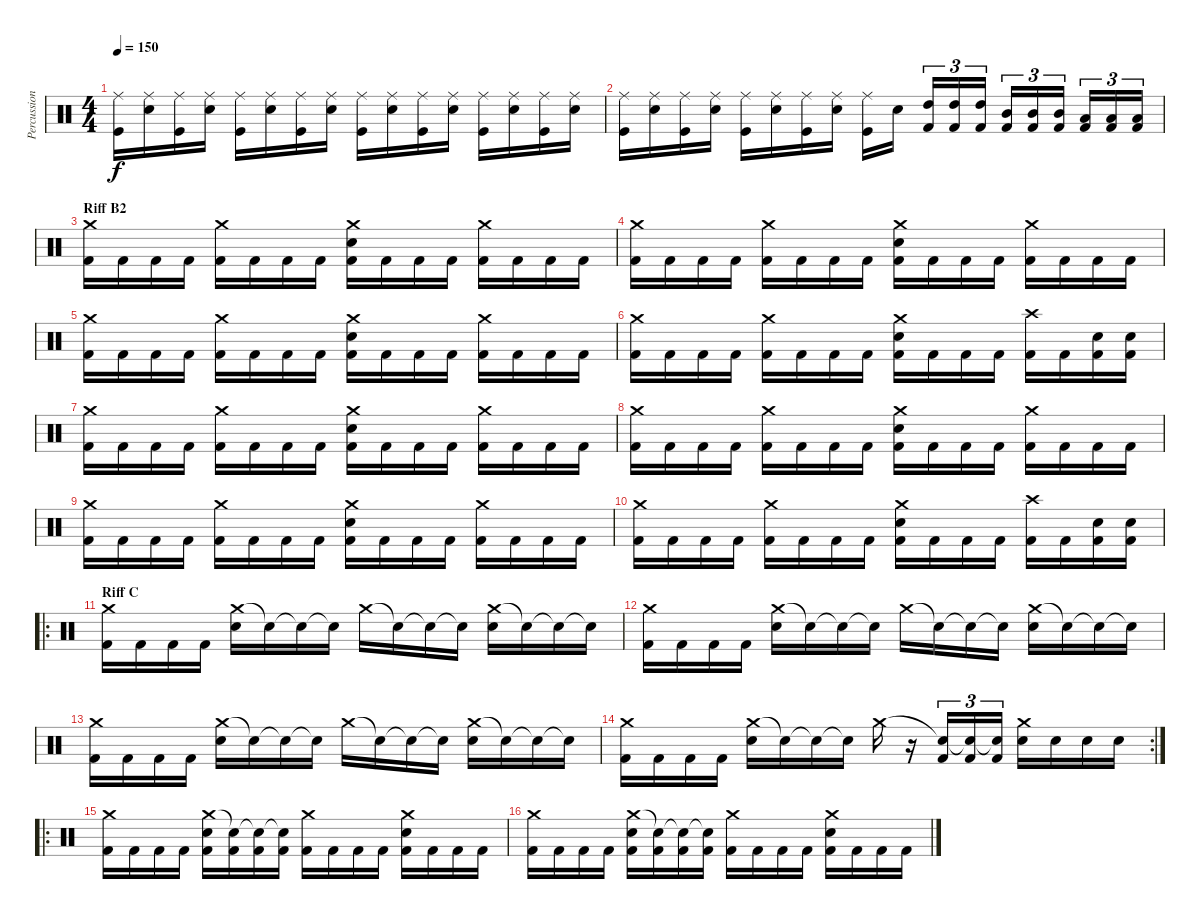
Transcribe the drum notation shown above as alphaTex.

\track ("Percussions" "Percussion") {instrument percussion}
\staff {score}
\articulation defaults
\ts (4 4)
\tempo 150
\clef neutral
\ks c
("Ride (middle)" "Kick (hit)").16{dy f} ("Ride (middle)" "Snare (hit) 2").16 ("Ride (middle)" "Kick (hit)").16 ("Ride (middle)" "Snare (hit) 2").16 ("Ride (middle)" "Kick (hit)").16 ("Ride (middle)" "Snare (hit) 2").16 ("Ride (middle)" "Kick (hit)").16 ("Ride (middle)" "Snare (hit) 2").16 ("Ride (middle)" "Kick (hit)").16 ("Ride (middle)" "Snare (hit) 2").16 ("Ride (middle)" "Kick (hit)").16 ("Ride (middle)" "Snare (hit) 2").16 ("Ride (middle)" "Kick (hit)").16 ("Ride (middle)" "Snare (hit) 2").16 ("Ride (middle)" "Kick (hit)").16 ("Ride (middle)" "Snare (hit) 2").16 |
("Ride (middle)" "Kick (hit)").16 ("Ride (middle)" "Snare (hit) 2").16 ("Ride (middle)" "Kick (hit)").16 ("Ride (middle)" "Snare (hit) 2").16 ("Ride (middle)" "Kick (hit)").16 ("Ride (middle)" "Snare (hit) 2").16 ("Ride (middle)" "Kick (hit)").16 ("Ride (middle)" "Snare (hit) 2").16 ("Ride (middle)" "Kick (hit)").16 "Snare (hit) 2".16 ("High Tom (hit)" "Kick (hit) 2").16{tu (3 2)} ("High Tom (hit)" "Kick (hit) 2").16{tu (3 2)} ("High Tom (hit)" "Kick (hit) 2").16{tu (3 2)} ("Mid Tom (hit)" "Kick (hit) 2").16{tu (3 2)} ("Mid Tom (hit)" "Kick (hit) 2").16{tu (3 2)} ("Mid Tom (hit)" "Kick (hit) 2").16{tu (3 2)} ("Low Tom (hit)" "Kick (hit) 2").16{tu (3 2)} ("Low Tom (hit)" "Kick (hit) 2").16{tu (3 2)} ("Low Tom (hit)" "Kick (hit) 2").16{tu (3 2)} |
\section ("" "Riff B2")
("Crash medium (hit)" "Kick (hit) 2").16 "Kick (hit) 2".16 "Kick (hit) 2".16 "Kick (hit) 2".16 ("Crash medium (hit)" "Kick (hit) 2").16 "Kick (hit) 2".16 "Kick (hit) 2".16 "Kick (hit) 2".16 ("Crash medium (hit)" "Snare (hit) 2" "Kick (hit) 2").16 "Kick (hit) 2".16 "Kick (hit) 2".16 "Kick (hit) 2".16 ("Crash medium (hit)" "Kick (hit) 2").16 "Kick (hit) 2".16 "Kick (hit) 2".16 "Kick (hit) 2".16 |
("Crash medium (hit)" "Kick (hit) 2").16 "Kick (hit) 2".16 "Kick (hit) 2".16 "Kick (hit) 2".16 ("Crash medium (hit)" "Kick (hit) 2").16 "Kick (hit) 2".16 "Kick (hit) 2".16 "Kick (hit) 2".16 ("Crash medium (hit)" "Snare (hit) 2" "Kick (hit) 2").16 "Kick (hit) 2".16 "Kick (hit) 2".16 "Kick (hit) 2".16 ("Crash medium (hit)" "Kick (hit) 2").16 "Kick (hit) 2".16 "Kick (hit) 2".16 "Kick (hit) 2".16 |
("Crash medium (hit)" "Kick (hit) 2").16 "Kick (hit) 2".16 "Kick (hit) 2".16 "Kick (hit) 2".16 ("Crash medium (hit)" "Kick (hit) 2").16 "Kick (hit) 2".16 "Kick (hit) 2".16 "Kick (hit) 2".16 ("Crash medium (hit)" "Snare (hit) 2" "Kick (hit) 2").16 "Kick (hit) 2".16 "Kick (hit) 2".16 "Kick (hit) 2".16 ("Crash medium (hit)" "Kick (hit) 2").16 "Kick (hit) 2".16 "Kick (hit) 2".16 "Kick (hit) 2".16 |
("Crash medium (hit)" "Kick (hit) 2").16 "Kick (hit) 2".16 "Kick (hit) 2".16 "Kick (hit) 2".16 ("Crash medium (hit)" "Kick (hit) 2").16 "Kick (hit) 2".16 "Kick (hit) 2".16 "Kick (hit) 2".16 ("Crash medium (hit)" "Snare (hit) 2" "Kick (hit) 2").16 "Kick (hit) 2".16 "Kick (hit) 2".16 "Kick (hit) 2".16 ("Crash high (hit)" "Kick (hit) 2").16 "Kick (hit) 2".16 ("Snare (hit) 2" "Kick (hit) 2").16 ("Snare (hit) 2" "Kick (hit) 2").16 |
("Crash medium (hit)" "Kick (hit) 2").16 "Kick (hit) 2".16 "Kick (hit) 2".16 "Kick (hit) 2".16 ("Crash medium (hit)" "Kick (hit) 2").16 "Kick (hit) 2".16 "Kick (hit) 2".16 "Kick (hit) 2".16 ("Crash medium (hit)" "Snare (hit) 2" "Kick (hit) 2").16 "Kick (hit) 2".16 "Kick (hit) 2".16 "Kick (hit) 2".16 ("Crash medium (hit)" "Kick (hit) 2").16 "Kick (hit) 2".16 "Kick (hit) 2".16 "Kick (hit) 2".16 |
("Crash medium (hit)" "Kick (hit) 2").16 "Kick (hit) 2".16 "Kick (hit) 2".16 "Kick (hit) 2".16 ("Crash medium (hit)" "Kick (hit) 2").16 "Kick (hit) 2".16 "Kick (hit) 2".16 "Kick (hit) 2".16 ("Crash medium (hit)" "Snare (hit) 2" "Kick (hit) 2").16 "Kick (hit) 2".16 "Kick (hit) 2".16 "Kick (hit) 2".16 ("Crash medium (hit)" "Kick (hit) 2").16 "Kick (hit) 2".16 "Kick (hit) 2".16 "Kick (hit) 2".16 |
("Crash medium (hit)" "Kick (hit) 2").16 "Kick (hit) 2".16 "Kick (hit) 2".16 "Kick (hit) 2".16 ("Crash medium (hit)" "Kick (hit) 2").16 "Kick (hit) 2".16 "Kick (hit) 2".16 "Kick (hit) 2".16 ("Crash medium (hit)" "Snare (hit) 2" "Kick (hit) 2").16 "Kick (hit) 2".16 "Kick (hit) 2".16 "Kick (hit) 2".16 ("Crash medium (hit)" "Kick (hit) 2").16 "Kick (hit) 2".16 "Kick (hit) 2".16 "Kick (hit) 2".16 |
("Crash medium (hit)" "Kick (hit) 2").16 "Kick (hit) 2".16 "Kick (hit) 2".16 "Kick (hit) 2".16 ("Crash medium (hit)" "Kick (hit) 2").16 "Kick (hit) 2".16 "Kick (hit) 2".16 "Kick (hit) 2".16 ("Crash medium (hit)" "Snare (hit) 2" "Kick (hit) 2").16 "Kick (hit) 2".16 "Kick (hit) 2".16 "Kick (hit) 2".16 ("Crash high (hit)" "Kick (hit) 2").16 "Kick (hit) 2".16 ("Snare (hit) 2" "Kick (hit) 2").16 ("Snare (hit) 2" "Kick (hit) 2").16 |
\ro
\section ("" "Riff C")
("Crash medium (hit)" "Kick (hit) 2").16 "Kick (hit) 2".16 "Kick (hit) 2".16 "Kick (hit) 2".16 ("Crash medium (hit)" "Snare (hit) 2").16 "Snare (hit)"{t}.16 "Snare (hit)"{t}.16 "Snare (hit)"{t}.16 "Crash medium (hit)".16 "Snare (hit) 2"{t}.16 "Snare (hit) 2"{t}.16 "Snare (hit) 2"{t}.16 ("Crash medium (hit)" "Snare (hit) 2").16 "Snare (hit) 2"{t}.16 "Snare (hit) 2"{t}.16 "Snare (hit) 2"{t}.16 |
("Crash medium (hit)" "Kick (hit) 2").16 "Kick (hit) 2".16 "Kick (hit) 2".16 "Kick (hit) 2".16 ("Crash medium (hit)" "Snare (hit) 2").16 "Snare (hit)"{t}.16 "Snare (hit)"{t}.16 "Snare (hit)"{t}.16 "Crash medium (hit)".16 "Snare (hit) 2"{t}.16 "Snare (hit) 2"{t}.16 "Snare (hit) 2"{t}.16 ("Crash medium (hit)" "Snare (hit) 2").16 "Snare (hit) 2"{t}.16 "Snare (hit) 2"{t}.16 "Snare (hit) 2"{t}.16 |
("Crash medium (hit)" "Kick (hit) 2").16 "Kick (hit) 2".16 "Kick (hit) 2".16 "Kick (hit) 2".16 ("Crash medium (hit)" "Snare (hit) 2").16 "Snare (hit)"{t}.16 "Snare (hit)"{t}.16 "Snare (hit)"{t}.16 "Crash medium (hit)".16 "Snare (hit) 2"{t}.16 "Snare (hit) 2"{t}.16 "Snare (hit) 2"{t}.16 ("Crash medium (hit)" "Snare (hit) 2").16 "Snare (hit) 2"{t}.16 "Snare (hit) 2"{t}.16 "Snare (hit) 2"{t}.16 |
\rc 2
("Crash medium (hit)" "Kick (hit) 2").16 "Kick (hit) 2".16 "Kick (hit) 2".16 "Kick (hit) 2".16 ("Crash medium (hit)" "Snare (hit) 2").16 "Snare (hit)"{t}.16 "Snare (hit)"{t}.16 "Snare (hit)"{t}.16 "Crash medium (hit)".16 r.16 ("Snare (hit) 2"{t} "Kick (hit) 2").16{tu (3 2)} ("Snare (hit) 2"{t} "Kick (hit) 2").16{tu (3 2)} ("Snare (hit) 2"{t} "Kick (hit) 2").16{tu (3 2)} ("Crash medium (hit)" "Snare (hit) 2").16 "Snare (hit) 2".16 "Snare (hit) 2".16 "Snare (hit) 2".16 |
\ro
("Crash medium (hit)" "Kick (hit) 2").16 "Kick (hit) 2".16 "Kick (hit) 2".16 "Kick (hit) 2".16 ("Crash medium (hit)" "Snare (hit) 2" "Kick (hit) 2").16 ("Snare (hit)"{t} "Kick (hit) 2").16 ("Snare (hit)"{t} "Kick (hit) 2").16 ("Snare (hit)"{t} "Kick (hit) 2").16 ("Crash medium (hit)" "Kick (hit) 2").16 "Kick (hit) 2".16 "Kick (hit) 2".16 "Kick (hit) 2".16 ("Crash medium (hit)" "Snare (hit) 2" "Kick (hit) 2").16 "Kick (hit) 2".16 "Kick (hit) 2".16 "Kick (hit) 2".16 |
("Crash medium (hit)" "Kick (hit) 2").16 "Kick (hit) 2".16 "Kick (hit) 2".16 "Kick (hit) 2".16 ("Crash medium (hit)" "Snare (hit) 2" "Kick (hit) 2").16 ("Snare (hit)"{t} "Kick (hit) 2").16 ("Snare (hit)"{t} "Kick (hit) 2").16 ("Snare (hit)"{t} "Kick (hit) 2").16 ("Crash medium (hit)" "Kick (hit) 2").16 "Kick (hit) 2".16 "Kick (hit) 2".16 "Kick (hit) 2".16 ("Crash medium (hit)" "Snare (hit) 2" "Kick (hit) 2").16 "Kick (hit) 2".16 "Kick (hit) 2".16 "Kick (hit) 2".16
